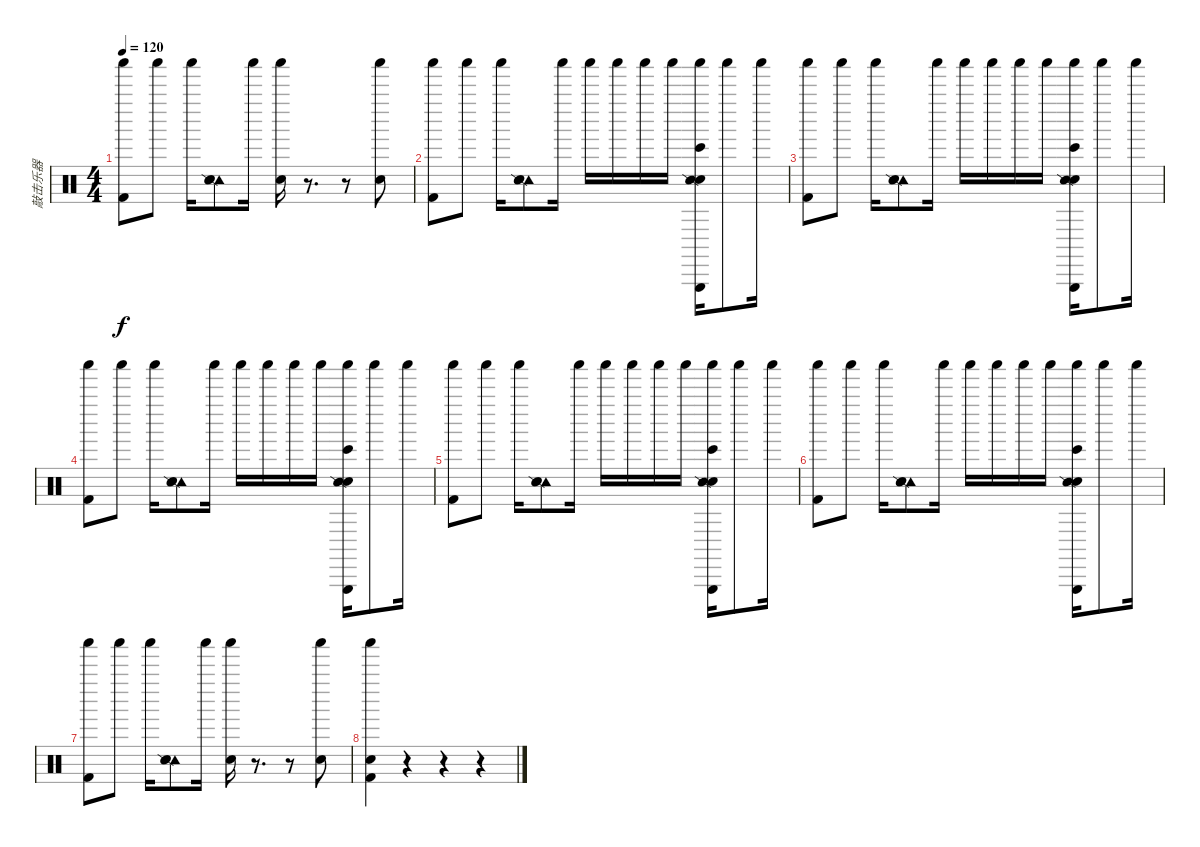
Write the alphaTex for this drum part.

\track ("敲击乐器" "敲击乐器") {instrument percussion}
\staff {score}
\articulation defaults
\ts (4 4)
\tempo 120
\clef neutral
\ks c
("Shaker (hit)" "Kick (hit) 2").8{dy f} "Shaker (hit)".8 "Shaker (hit)".16 ("Tambourine (hit)" "Metronome (bell)" "Snare (side stick) 2").8 "Shaker (hit)".16 ("Shaker (hit)" "Snare (hit) 2").16 r.8{d} r.8 ("Shaker (hit)" "Snare (hit) 2").8 |
("Shaker (hit)" "Kick (hit) 2").8 "Shaker (hit)".8 "Shaker (hit)".16 ("Tambourine (hit)" "Metronome (bell)" "Snare (side stick) 2").8 "Shaker (hit)".16 "Shaker (hit)".16 "Shaker (hit)".16 "Shaker (hit)".16 "Shaker (hit)".16 ("Shaker (hit)" "Metronome (bell)" "Snare (side stick) 2" "Bongo High (hit)" "Triangle (hit)").16 "Shaker (hit)".8 "Shaker (hit)".16 |
("Shaker (hit)" "Kick (hit) 2").8 "Shaker (hit)".8 "Shaker (hit)".16 ("Tambourine (hit)" "Metronome (bell)" "Snare (side stick) 2").8 "Shaker (hit)".16 "Shaker (hit)".16 "Shaker (hit)".16 "Shaker (hit)".16 "Shaker (hit)".16 ("Shaker (hit)" "Metronome (bell)" "Snare (side stick) 2" "Bongo High (hit)" "Triangle (hit)").16 "Shaker (hit)".8 "Shaker (hit)".16 |
("Shaker (hit)" "Kick (hit) 2").8 "Shaker (hit)".8 "Shaker (hit)".16 ("Tambourine (hit)" "Metronome (bell)" "Snare (side stick) 2").8 "Shaker (hit)".16 "Shaker (hit)".16 "Shaker (hit)".16 "Shaker (hit)".16 "Shaker (hit)".16 ("Shaker (hit)" "Metronome (bell)" "Snare (side stick) 2" "Bongo High (hit)" "Triangle (hit)").16 "Shaker (hit)".8 "Shaker (hit)".16 |
("Shaker (hit)" "Kick (hit) 2").8 "Shaker (hit)".8 "Shaker (hit)".16 ("Tambourine (hit)" "Metronome (bell)" "Snare (side stick) 2").8 "Shaker (hit)".16 "Shaker (hit)".16 "Shaker (hit)".16 "Shaker (hit)".16 "Shaker (hit)".16 ("Shaker (hit)" "Metronome (bell)" "Snare (side stick) 2" "Bongo High (hit)" "Triangle (hit)").16 "Shaker (hit)".8 "Shaker (hit)".16 |
("Shaker (hit)" "Kick (hit) 2").8 "Shaker (hit)".8 "Shaker (hit)".16 ("Tambourine (hit)" "Metronome (bell)" "Snare (side stick) 2").8 "Shaker (hit)".16 "Shaker (hit)".16 "Shaker (hit)".16 "Shaker (hit)".16 "Shaker (hit)".16 ("Shaker (hit)" "Metronome (bell)" "Snare (side stick) 2" "Bongo High (hit)" "Triangle (hit)").16 "Shaker (hit)".8 "Shaker (hit)".16 |
("Shaker (hit)" "Kick (hit) 2").8 "Shaker (hit)".8 "Shaker (hit)".16 ("Tambourine (hit)" "Metronome (bell)" "Snare (side stick) 2").8 "Shaker (hit)".16 ("Shaker (hit)" "Snare (hit) 2").16 r.8{d} r.8 ("Shaker (hit)" "Snare (hit) 2").8 |
("Shaker (hit)" "Snare (hit) 2" "Kick (hit) 2").4 r.4 r.4 r.4
